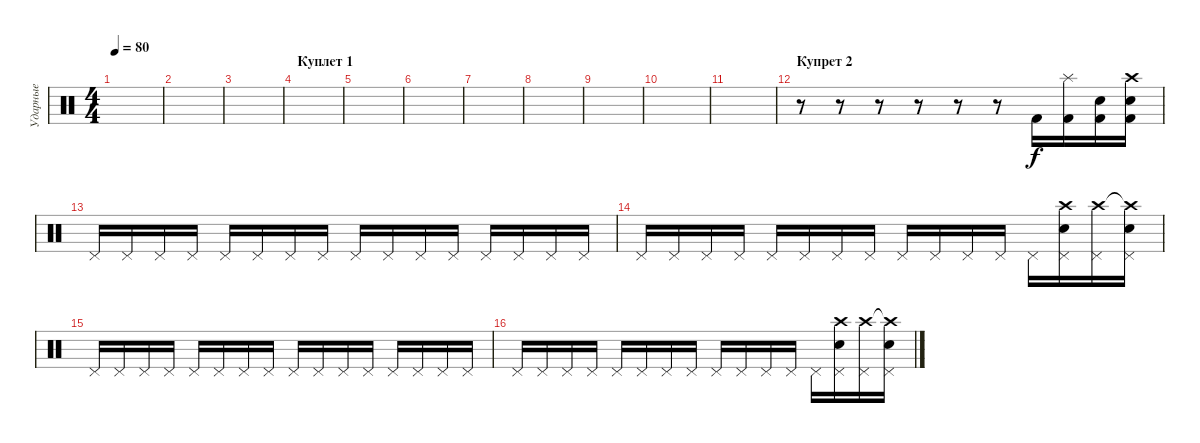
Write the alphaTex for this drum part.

\track ("Ударные" "Ударные") {instrument percussion}
\staff {score}
\articulation defaults
\ts (4 4)
\tempo 80
\clef neutral
\ks c
|
|
|
\section ("" "Куплет 1")
|
|
|
|
|
|
|
|
\section ("" "Купрет 2")
r.8 r.8 r.8 r.8 r.8 r.8 "Kick (hit) 2".16 ("Splash (hit)" "Kick (hit) 2").16 ("Kick (hit) 2" "Snare (hit) 2").16 ("Snare (hit) 2" "Crash high (hit)" "Kick (hit) 2").16 |
"Pedal Hi-Hat (hit)".16 "Pedal Hi-Hat (hit)".16 "Pedal Hi-Hat (hit)".16 "Pedal Hi-Hat (hit)".16 "Pedal Hi-Hat (hit)".16 "Pedal Hi-Hat (hit)".16 "Pedal Hi-Hat (hit)".16 "Pedal Hi-Hat (hit)".16 "Pedal Hi-Hat (hit)".16 "Pedal Hi-Hat (hit)".16 "Pedal Hi-Hat (hit)".16 "Pedal Hi-Hat (hit)".16 "Pedal Hi-Hat (hit)".16 "Pedal Hi-Hat (hit)".16 "Pedal Hi-Hat (hit)".16 "Pedal Hi-Hat (hit)".16 |
"Pedal Hi-Hat (hit)".16 "Pedal Hi-Hat (hit)".16 "Pedal Hi-Hat (hit)".16 "Pedal Hi-Hat (hit)".16 "Pedal Hi-Hat (hit)".16 "Pedal Hi-Hat (hit)".16 "Pedal Hi-Hat (hit)".16 "Pedal Hi-Hat (hit)".16 "Pedal Hi-Hat (hit)".16 "Pedal Hi-Hat (hit)".16 "Pedal Hi-Hat (hit)".16 "Pedal Hi-Hat (hit)".16 "Pedal Hi-Hat (hit)".16 ("Pedal Hi-Hat (hit)" "Crash high (hit)" "Snare (hit) 2").16 ("Pedal Hi-Hat (hit)" "Crash high (hit)").16 ("Pedal Hi-Hat (hit)" "Crash high (hit)"{t} "Snare (hit) 2").16 |
"Pedal Hi-Hat (hit)".16 "Pedal Hi-Hat (hit)".16 "Pedal Hi-Hat (hit)".16 "Pedal Hi-Hat (hit)".16 "Pedal Hi-Hat (hit)".16 "Pedal Hi-Hat (hit)".16 "Pedal Hi-Hat (hit)".16 "Pedal Hi-Hat (hit)".16 "Pedal Hi-Hat (hit)".16 "Pedal Hi-Hat (hit)".16 "Pedal Hi-Hat (hit)".16 "Pedal Hi-Hat (hit)".16 "Pedal Hi-Hat (hit)".16 "Pedal Hi-Hat (hit)".16 "Pedal Hi-Hat (hit)".16 "Pedal Hi-Hat (hit)".16 |
"Pedal Hi-Hat (hit)".16 "Pedal Hi-Hat (hit)".16 "Pedal Hi-Hat (hit)".16 "Pedal Hi-Hat (hit)".16 "Pedal Hi-Hat (hit)".16 "Pedal Hi-Hat (hit)".16 "Pedal Hi-Hat (hit)".16 "Pedal Hi-Hat (hit)".16 "Pedal Hi-Hat (hit)".16 "Pedal Hi-Hat (hit)".16 "Pedal Hi-Hat (hit)".16 "Pedal Hi-Hat (hit)".16 "Pedal Hi-Hat (hit)".16 ("Pedal Hi-Hat (hit)" "Crash high (hit)" "Snare (hit) 2").16 ("Pedal Hi-Hat (hit)" "Crash high (hit)").16 ("Pedal Hi-Hat (hit)" "Crash high (hit)"{t} "Snare (hit) 2").16
